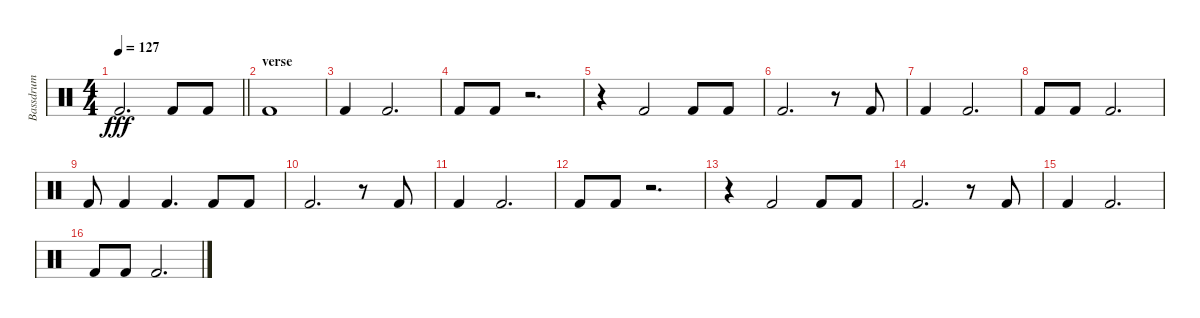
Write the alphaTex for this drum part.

\track ("Bassdrum" "Bassdrum") {instrument percussion}
\staff {score}
\articulation defaults
\ts (4 4)
\tempo 127
\clef neutral
\barLineRight lightlight
\ks c "Kick (hit) 2".2{d dy fff} "Kick (hit) 2".8 "Kick (hit) 2".8
|
\section ("" "verse")
"Kick (hit) 2".1 |
"Kick (hit) 2".4 "Kick (hit) 2".2{d} |
"Kick (hit) 2".8 "Kick (hit) 2".8 r.2{d} |
r.4 "Kick (hit) 2".2 "Kick (hit) 2".8 "Kick (hit) 2".8 |
"Kick (hit) 2".2{d} r.8 "Kick (hit) 2".8 |
"Kick (hit) 2".4 "Kick (hit) 2".2{d} |
"Kick (hit) 2".8 "Kick (hit) 2".8 "Kick (hit) 2".2{d} |
"Kick (hit) 2".8 "Kick (hit) 2".4 "Kick (hit) 2".4{d} "Kick (hit) 2".8 "Kick (hit) 2".8 |
"Kick (hit) 2".2{d} r.8 "Kick (hit) 2".8 |
"Kick (hit) 2".4 "Kick (hit) 2".2{d} |
"Kick (hit) 2".8 "Kick (hit) 2".8 r.2{d} |
r.4 "Kick (hit) 2".2 "Kick (hit) 2".8 "Kick (hit) 2".8 |
"Kick (hit) 2".2{d} r.8 "Kick (hit) 2".8 |
"Kick (hit) 2".4 "Kick (hit) 2".2{d} |
"Kick (hit) 2".8 "Kick (hit) 2".8 "Kick (hit) 2".2{d}
